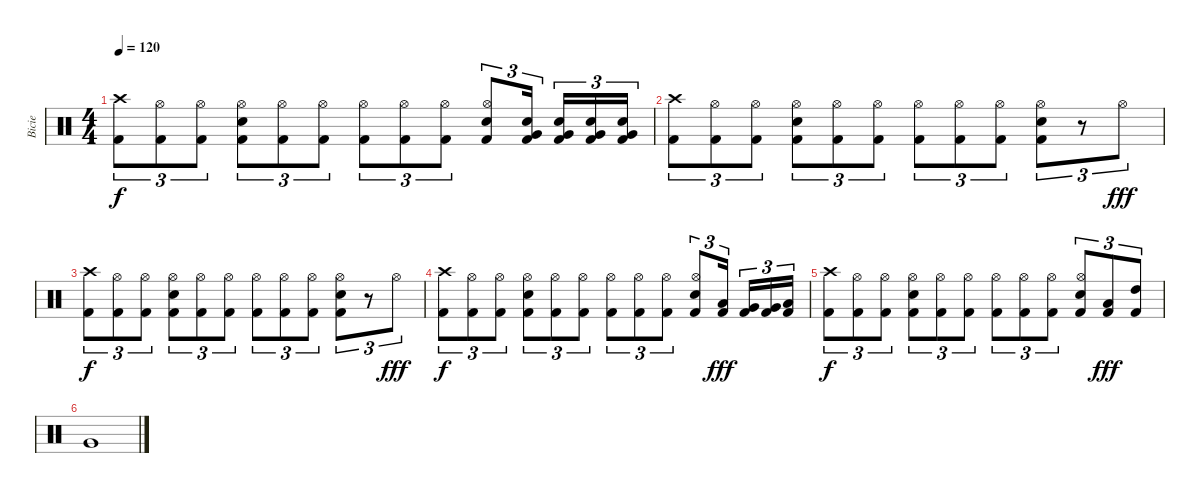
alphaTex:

\track ("Bicie" "Bicie") {instrument percussion}
\staff {score}
\articulation defaults
\ts (4 4)
\tempo 120
\clef neutral
\ks c
("Crash high (hit)" "Kick (hit) 2").8{tu (3 2) dy f} ("Hi-Hat (open)" "Kick (hit) 2").8{tu (3 2)} ("Hi-Hat (open)" "Kick (hit) 2").8{tu (3 2)} ("Hi-Hat (open)" "Electric Snare (hit)" "Kick (hit) 2").8{tu (3 2)} ("Hi-Hat (open)" "Kick (hit) 2").8{tu (3 2)} ("Hi-Hat (open)" "Kick (hit) 2").8{tu (3 2)} ("Hi-Hat (open)" "Kick (hit) 2").8{tu (3 2)} ("Hi-Hat (open)" "Kick (hit) 2").8{tu (3 2)} ("Hi-Hat (open)" "Kick (hit) 2").8{tu (3 2)} ("Hi-Hat (open)" "Electric Snare (hit)" "Kick (hit) 2").8{tu (3 2)} ("Very Low Tom (hit)" "Electric Snare (hit)" "Kick (hit) 2").16{tu (3 2)} ("Very Low Tom (hit)" "Electric Snare (hit)" "Kick (hit) 2").16{tu (3 2)} ("Very Low Tom (hit)" "Electric Snare (hit)" "Kick (hit) 2").16{tu (3 2)} ("Very Low Tom (hit)" "Electric Snare (hit)" "Kick (hit) 2").16{tu (3 2)} |
("Crash high (hit)" "Kick (hit) 2").8{tu (3 2)} ("Hi-Hat (open)" "Kick (hit) 2").8{tu (3 2)} ("Hi-Hat (open)" "Kick (hit) 2").8{tu (3 2)} ("Hi-Hat (open)" "Electric Snare (hit)" "Kick (hit) 2").8{tu (3 2)} ("Hi-Hat (open)" "Kick (hit) 2").8{tu (3 2)} ("Hi-Hat (open)" "Kick (hit) 2").8{tu (3 2)} ("Hi-Hat (open)" "Kick (hit) 2").8{tu (3 2)} ("Hi-Hat (open)" "Kick (hit) 2").8{tu (3 2)} ("Hi-Hat (open)" "Kick (hit) 2").8{tu (3 2)} ("Hi-Hat (open)" "Electric Snare (hit)" "Kick (hit) 2").8{tu (3 2)} r.8{tu (3 2)} "Hi-Hat (open)".8{tu (3 2) dy fff} |
("Crash high (hit)" "Kick (hit) 2").8{tu (3 2) dy f} ("Hi-Hat (open)" "Kick (hit) 2").8{tu (3 2)} ("Hi-Hat (open)" "Kick (hit) 2").8{tu (3 2)} ("Hi-Hat (open)" "Electric Snare (hit)" "Kick (hit) 2").8{tu (3 2)} ("Hi-Hat (open)" "Kick (hit) 2").8{tu (3 2)} ("Hi-Hat (open)" "Kick (hit) 2").8{tu (3 2)} ("Hi-Hat (open)" "Kick (hit) 2").8{tu (3 2)} ("Hi-Hat (open)" "Kick (hit) 2").8{tu (3 2)} ("Hi-Hat (open)" "Kick (hit) 2").8{tu (3 2)} ("Hi-Hat (open)" "Electric Snare (hit)" "Kick (hit) 2").8{tu (3 2)} r.8{tu (3 2)} "Hi-Hat (open)".8{tu (3 2) dy fff} |
("Crash high (hit)" "Kick (hit) 2").8{tu (3 2) dy f} ("Hi-Hat (open)" "Kick (hit) 2").8{tu (3 2)} ("Hi-Hat (open)" "Kick (hit) 2").8{tu (3 2)} ("Hi-Hat (open)" "Electric Snare (hit)" "Kick (hit) 2").8{tu (3 2)} ("Hi-Hat (open)" "Kick (hit) 2").8{tu (3 2)} ("Hi-Hat (open)" "Kick (hit) 2").8{tu (3 2)} ("Hi-Hat (open)" "Kick (hit) 2").8{tu (3 2)} ("Hi-Hat (open)" "Kick (hit) 2").8{tu (3 2)} ("Hi-Hat (open)" "Kick (hit) 2").8{tu (3 2)} ("Hi-Hat (open)" "Electric Snare (hit)" "Kick (hit) 2").8{tu (3 2)} ("Kick (hit) 2" "Low Tom (hit)").16{tu (3 2) dy fff} ("Kick (hit) 2" "Very Low Tom (hit)").16{tu (3 2)} ("Kick (hit) 2" "Very Low Tom (hit)").16{tu (3 2)} ("Kick (hit) 2" "Low Floor Tom (hit)").16{tu (3 2)} |
("Crash high (hit)" "Kick (hit) 2").8{tu (3 2) dy f} ("Hi-Hat (open)" "Kick (hit) 2").8{tu (3 2)} ("Hi-Hat (open)" "Kick (hit) 2").8{tu (3 2)} ("Hi-Hat (open)" "Electric Snare (hit)" "Kick (hit) 2").8{tu (3 2)} ("Hi-Hat (open)" "Kick (hit) 2").8{tu (3 2)} ("Hi-Hat (open)" "Kick (hit) 2").8{tu (3 2)} ("Hi-Hat (open)" "Kick (hit) 2").8{tu (3 2)} ("Hi-Hat (open)" "Kick (hit) 2").8{tu (3 2)} ("Hi-Hat (open)" "Kick (hit) 2").8{tu (3 2)} ("Hi-Hat (open)" "Electric Snare (hit)" "Kick (hit) 2").8{tu (3 2)} ("Low Tom (hit)" "Kick (hit) 2").8{tu (3 2) dy fff} ("High Tom (hit)" "Kick (hit) 2").8{tu (3 2)} |
"Very Low Tom (hit)".1
